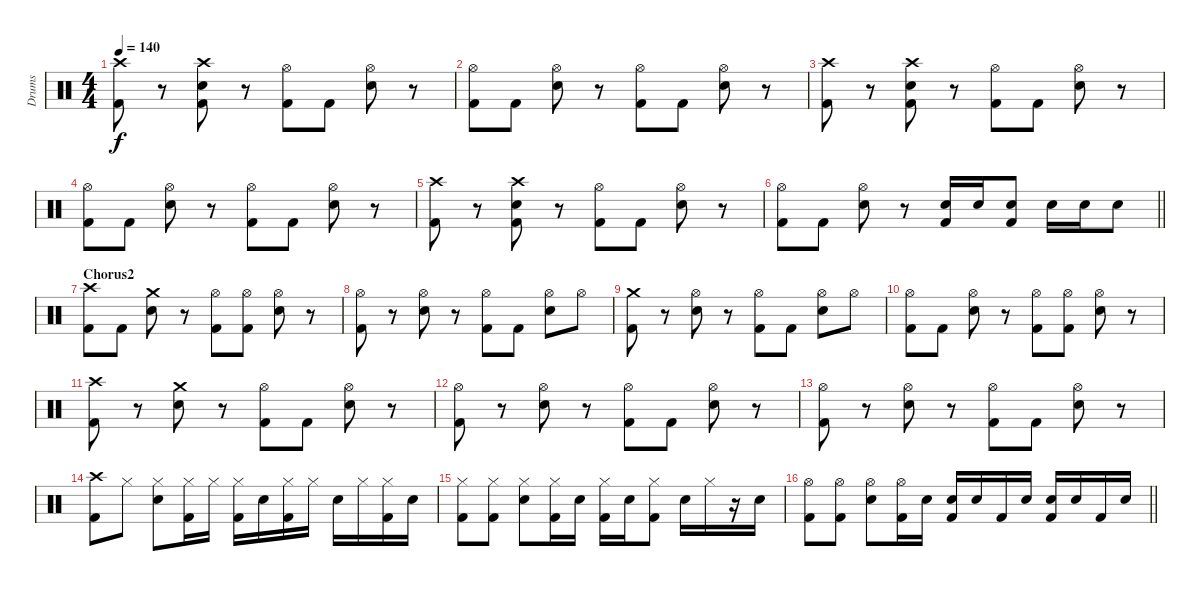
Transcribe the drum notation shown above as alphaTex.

\track ("Drums" "Drums") {instrument percussion}
\staff {score}
\articulation defaults
\ts (4 4)
\tempo 140
\clef neutral
\ks c
("Crash high (hit)" "Kick (hit) 2").8{dy f} r.8 ("Crash high (hit)" "Snare (hit) 2" "Kick (hit) 2").8 r.8 ("Hi-Hat (open)" "Kick (hit) 2").8 "Kick (hit) 2".8 ("Hi-Hat (open)" "Snare (hit) 2").8 r.8 |
("Hi-Hat (open)" "Kick (hit) 2").8 "Kick (hit) 2".8 ("Hi-Hat (open)" "Snare (hit) 2").8 r.8 ("Hi-Hat (open)" "Kick (hit) 2").8 "Kick (hit) 2".8 ("Hi-Hat (open)" "Snare (hit) 2").8 r.8 |
("Crash high (hit)" "Kick (hit) 2").8 r.8 ("Crash high (hit)" "Snare (hit) 2" "Kick (hit) 2").8 r.8 ("Hi-Hat (open)" "Kick (hit) 2").8 "Kick (hit) 2".8 ("Hi-Hat (open)" "Snare (hit) 2").8 r.8 |
("Hi-Hat (open)" "Kick (hit) 2").8 "Kick (hit) 2".8 ("Hi-Hat (open)" "Snare (hit) 2").8 r.8 ("Hi-Hat (open)" "Kick (hit) 2").8 "Kick (hit) 2".8 ("Hi-Hat (open)" "Snare (hit) 2").8 r.8 |
("Crash high (hit)" "Kick (hit) 2").8 r.8 ("Crash high (hit)" "Snare (hit) 2" "Kick (hit) 2").8 r.8 ("Hi-Hat (open)" "Kick (hit) 2").8 "Kick (hit) 2".8 ("Hi-Hat (open)" "Snare (hit) 2").8 r.8 |
\barLineRight lightlight
("Hi-Hat (open)" "Kick (hit) 2").8 "Kick (hit) 2".8 ("Hi-Hat (open)" "Snare (hit) 2").8 r.8 ("Snare (hit) 2" "Kick (hit) 2").16 "Snare (hit) 2".16 ("Snare (hit) 2" "Kick (hit) 2").8 "Snare (hit) 2".16 "Snare (hit) 2".16 "Snare (hit) 2".8 |
\section ("" "Chorus2")
("Crash high (hit)" "Kick (hit) 2").8 "Kick (hit) 2".8 ("Crash medium (hit)" "Snare (hit) 2").8 r.8 ("Hi-Hat (open)" "Kick (hit) 2").8 ("Hi-Hat (open)" "Kick (hit) 2").8 ("Hi-Hat (open)" "Snare (hit) 2").8 r.8 |
("Hi-Hat (open)" "Kick (hit) 2").8 r.8 ("Hi-Hat (open)" "Snare (hit) 2").8 r.8 ("Hi-Hat (open)" "Kick (hit) 2").8 "Kick (hit) 2".8 ("Hi-Hat (open)" "Snare (hit) 2").8 "Hi-Hat (open)".8 |
("Crash medium (hit)" "Kick (hit) 2").8 r.8 ("Hi-Hat (open)" "Snare (hit) 2").8 r.8 ("Hi-Hat (open)" "Kick (hit) 2").8 "Kick (hit) 2".8 ("Hi-Hat (open)" "Snare (hit) 2").8 "Hi-Hat (open)".8 |
("Hi-Hat (open)" "Kick (hit) 2").8 "Kick (hit) 2".8 ("Hi-Hat (open)" "Snare (hit) 2").8 r.8 ("Hi-Hat (open)" "Kick (hit) 2").8 ("Hi-Hat (open)" "Kick (hit) 2").8 ("Hi-Hat (open)" "Snare (hit) 2").8 r.8 |
("Crash high (hit)" "Kick (hit) 2").8 r.8 ("Crash medium (hit)" "Snare (hit) 2").8 r.8 ("Hi-Hat (open)" "Kick (hit) 2").8 "Kick (hit) 2".8 ("Hi-Hat (open)" "Snare (hit) 2").8 r.8 |
("Hi-Hat (open)" "Kick (hit) 2").8 r.8 ("Hi-Hat (open)" "Snare (hit) 2").8 r.8 ("Hi-Hat (open)" "Kick (hit) 2").8 "Kick (hit) 2".8 ("Hi-Hat (open)" "Snare (hit) 2").8 r.8 |
("Hi-Hat (open)" "Kick (hit) 2").8 r.8 ("Hi-Hat (open)" "Snare (hit) 2").8 r.8 ("Hi-Hat (open)" "Kick (hit) 2").8 "Kick (hit) 2".8 ("Hi-Hat (open)" "Snare (hit) 2").8 r.8 |
("Crash high (hit)" "Kick (hit) 2").8 "Hi-Hat (closed)".8 ("Hi-Hat (closed)" "Snare (hit) 2").8 ("Hi-Hat (closed)" "Kick (hit) 2").16 "Hi-Hat (closed)".16 ("Hi-Hat (closed)" "Kick (hit) 2").16 "Snare (hit) 2".16 ("Hi-Hat (closed)" "Kick (hit) 2").16 "Hi-Hat (closed)".16 "Snare (hit) 2".16 "Hi-Hat (closed)".16 ("Hi-Hat (closed)" "Kick (hit) 2").16 "Snare (hit) 2".16 |
("Hi-Hat (closed)" "Kick (hit) 2").8 ("Hi-Hat (closed)" "Kick (hit) 2").8 ("Hi-Hat (closed)" "Snare (hit) 2").8 ("Hi-Hat (closed)" "Kick (hit) 2").16 "Snare (hit) 2".16 ("Hi-Hat (closed)" "Kick (hit) 2").16 "Snare (hit) 2".16 ("Hi-Hat (closed)" "Kick (hit) 2").8 "Snare (hit) 2".16 "Hi-Hat (closed)".16 r.16 "Snare (hit) 2".16 |
\barLineRight lightlight
("Hi-Hat (open)" "Kick (hit) 2").8 ("Hi-Hat (open)" "Kick (hit) 2").8 ("Hi-Hat (open)" "Snare (hit) 2").8 ("Hi-Hat (open)" "Kick (hit) 2").16 "Snare (hit) 2".16 ("Snare (hit) 2" "Kick (hit) 2").16 "Snare (hit) 2".16 "Kick (hit) 2".16 "Snare (hit) 2".16 ("Snare (hit) 2" "Kick (hit) 2").16 "Snare (hit) 2".16 "Kick (hit) 2".16 "Snare (hit) 2".16
